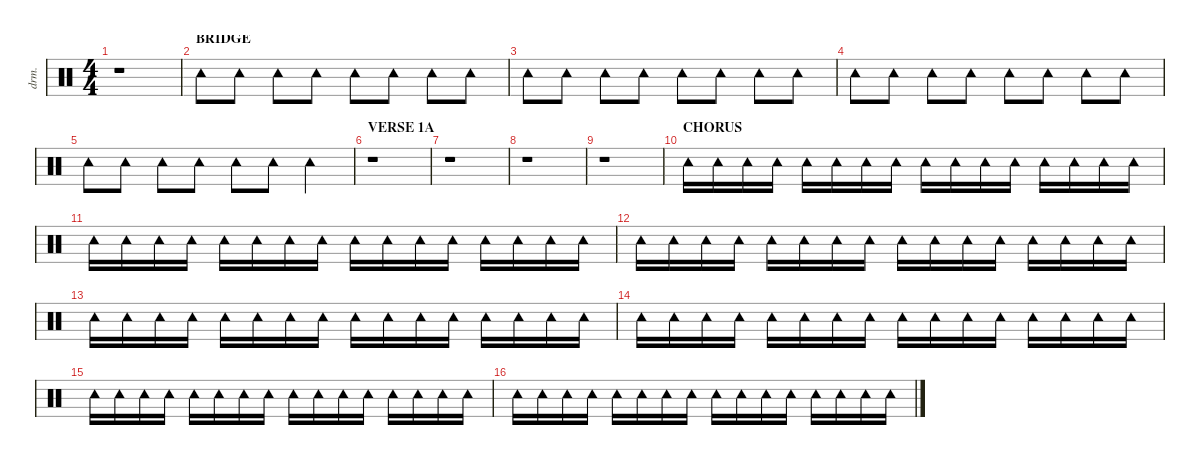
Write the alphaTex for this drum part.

\defaultSystemsLayout 4
\hideDynamics
\bracketExtendMode nobrackets
\otherSystemsTrackNameOrientation horizontal
\track ("Percussion" "drm.") {defaultSystemsLayout 8 solo instrument percussion}
\staff {score}
\articulation defaults
\ts (4 4)
\tempo (127 hide)
\clef neutral
\ks c
r.1{dy f beam Down} |
\section ("" "BRIDGE")
\tempo (128 hide)
"Tambourine (hit)".8{beam Down} "Tambourine (hit)".8{beam Down} "Tambourine (hit)".8{dy fff beam Down} "Tambourine (hit)".8{dy f beam Down} "Tambourine (hit)".8{beam Down} "Tambourine (hit)".8{beam Down} "Tambourine (hit)".8{dy fff beam Down} "Tambourine (hit)".8{dy f beam Down} |
"Tambourine (hit)".8{beam Down} "Tambourine (hit)".8{beam Down} "Tambourine (hit)".8{dy fff beam Down} "Tambourine (hit)".8{dy f beam Down} "Tambourine (hit)".8{beam Down} "Tambourine (hit)".8{beam Down} "Tambourine (hit)".8{dy fff beam Down} "Tambourine (hit)".8{dy f beam Down} |
"Tambourine (hit)".8{beam Down} "Tambourine (hit)".8{beam Down} "Tambourine (hit)".8{dy fff beam Down} "Tambourine (hit)".8{dy f beam Down} "Tambourine (hit)".8{beam Down} "Tambourine (hit)".8{beam Down} "Tambourine (hit)".8{dy fff beam Down} "Tambourine (hit)".8{dy f beam Down} |
"Tambourine (hit)".8{beam Down} "Tambourine (hit)".8{beam Down} "Tambourine (hit)".8{dy fff beam Down} "Tambourine (hit)".8{dy f beam Down} "Tambourine (hit)".8{beam Down} "Tambourine (hit)".8{beam Down} "Tambourine (hit)".4{dy fff beam Down} |
\section ("" "VERSE 1A")
r.1{beam Down} |
r.1{beam Down} |
r.1{beam Down} |
r.1{beam Down} |
\section ("" "CHORUS")
"Tambourine (hit)".16{dy f beam Down} "Tambourine (hit)".16{beam Down} "Tambourine (hit)".16{beam Down} "Tambourine (hit)".16{beam Down} "Tambourine (hit)".16{dy fff beam Down} "Tambourine (hit)".16{dy f beam Down} "Tambourine (hit)".16{beam Down} "Tambourine (hit)".16{beam Down} "Tambourine (hit)".16{beam Down} "Tambourine (hit)".16{beam Down} "Tambourine (hit)".16{beam Down} "Tambourine (hit)".16{beam Down} "Tambourine (hit)".16{dy fff beam Down} "Tambourine (hit)".16{dy f beam Down} "Tambourine (hit)".16{beam Down} "Tambourine (hit)".16{beam Down} |
"Tambourine (hit)".16{beam Down} "Tambourine (hit)".16{beam Down} "Tambourine (hit)".16{beam Down} "Tambourine (hit)".16{beam Down} "Tambourine (hit)".16{dy fff beam Down} "Tambourine (hit)".16{dy f beam Down} "Tambourine (hit)".16{beam Down} "Tambourine (hit)".16{beam Down} "Tambourine (hit)".16{beam Down} "Tambourine (hit)".16{beam Down} "Tambourine (hit)".16{beam Down} "Tambourine (hit)".16{beam Down} "Tambourine (hit)".16{dy fff beam Down} "Tambourine (hit)".16{dy f beam Down} "Tambourine (hit)".16{beam Down} "Tambourine (hit)".16{beam Down} |
"Tambourine (hit)".16{beam Down} "Tambourine (hit)".16{beam Down} "Tambourine (hit)".16{beam Down} "Tambourine (hit)".16{beam Down} "Tambourine (hit)".16{dy fff beam Down} "Tambourine (hit)".16{dy f beam Down} "Tambourine (hit)".16{beam Down} "Tambourine (hit)".16{beam Down} "Tambourine (hit)".16{beam Down} "Tambourine (hit)".16{beam Down} "Tambourine (hit)".16{beam Down} "Tambourine (hit)".16{beam Down} "Tambourine (hit)".16{dy fff beam Down} "Tambourine (hit)".16{dy f beam Down} "Tambourine (hit)".16{beam Down} "Tambourine (hit)".16{beam Down} |
"Tambourine (hit)".16{beam Down} "Tambourine (hit)".16{beam Down} "Tambourine (hit)".16{beam Down} "Tambourine (hit)".16{beam Down} "Tambourine (hit)".16{dy fff beam Down} "Tambourine (hit)".16{dy f beam Down} "Tambourine (hit)".16{beam Down} "Tambourine (hit)".16{beam Down} "Tambourine (hit)".16{beam Down} "Tambourine (hit)".16{beam Down} "Tambourine (hit)".16{beam Down} "Tambourine (hit)".16{beam Down} "Tambourine (hit)".16{dy fff beam Down} "Tambourine (hit)".16{dy f beam Down} "Tambourine (hit)".16{beam Down} "Tambourine (hit)".16{beam Down} |
"Tambourine (hit)".16{beam Down} "Tambourine (hit)".16{beam Down} "Tambourine (hit)".16{beam Down} "Tambourine (hit)".16{beam Down} "Tambourine (hit)".16{dy fff beam Down} "Tambourine (hit)".16{dy f beam Down} "Tambourine (hit)".16{beam Down} "Tambourine (hit)".16{beam Down} "Tambourine (hit)".16{beam Down} "Tambourine (hit)".16{beam Down} "Tambourine (hit)".16{beam Down} "Tambourine (hit)".16{beam Down} "Tambourine (hit)".16{dy fff beam Down} "Tambourine (hit)".16{dy f beam Down} "Tambourine (hit)".16{beam Down} "Tambourine (hit)".16{beam Down} |
"Tambourine (hit)".16{beam Down} "Tambourine (hit)".16{beam Down} "Tambourine (hit)".16{beam Down} "Tambourine (hit)".16{beam Down} "Tambourine (hit)".16{dy fff beam Down} "Tambourine (hit)".16{dy f beam Down} "Tambourine (hit)".16{beam Down} "Tambourine (hit)".16{beam Down} "Tambourine (hit)".16{beam Down} "Tambourine (hit)".16{beam Down} "Tambourine (hit)".16{beam Down} "Tambourine (hit)".16{beam Down} "Tambourine (hit)".16{dy fff beam Down} "Tambourine (hit)".16{dy f beam Down} "Tambourine (hit)".16{beam Down} "Tambourine (hit)".16{beam Down} |
"Tambourine (hit)".16{beam Down} "Tambourine (hit)".16{beam Down} "Tambourine (hit)".16{beam Down} "Tambourine (hit)".16{beam Down} "Tambourine (hit)".16{dy fff beam Down} "Tambourine (hit)".16{dy f beam Down} "Tambourine (hit)".16{beam Down} "Tambourine (hit)".16{beam Down} "Tambourine (hit)".16{beam Down} "Tambourine (hit)".16{beam Down} "Tambourine (hit)".16{beam Down} "Tambourine (hit)".16{beam Down} "Tambourine (hit)".16{dy fff beam Down} "Tambourine (hit)".16{dy f beam Down} "Tambourine (hit)".16{beam Down} "Tambourine (hit)".16{beam Down}
